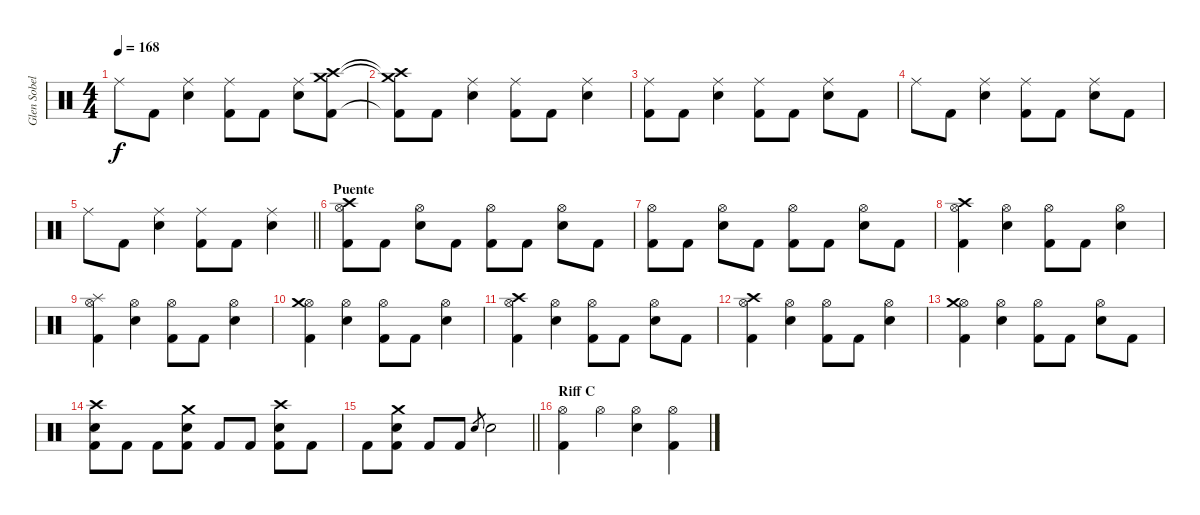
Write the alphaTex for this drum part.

\track ("Glen Sobel" "Glen Sobel") {instrument percussion}
\staff {score}
\articulation defaults
\ts (4 4)
\tempo 168
\clef neutral
\ks c "Ride (middle)".8{dy f} "Kick (hit) 2".8
("Ride (middle)" "Snare (hit) 2").4 ("Ride (middle)" "Kick (hit) 2").8 "Kick (hit) 2".8 ("Ride (middle)" "Snare (hit) 2").8 ("Crash medium (hit)" "Crash high (hit)" "Kick (hit) 2").8 |
("Crash medium (hit)"{t} "Crash high (hit)"{t} "Kick (hit) 2"{t}).8 "Kick (hit) 2".8 ("Ride (middle)" "Snare (hit) 2").4 ("Ride (middle)" "Kick (hit) 2").8 "Kick (hit) 2".8 ("Ride (middle)" "Snare (hit) 2").4 |
("Ride (middle)" "Kick (hit) 2").8 "Kick (hit) 2".8 ("Ride (middle)" "Snare (hit) 2").4 ("Ride (middle)" "Kick (hit) 2").8 "Kick (hit) 2".8 ("Ride (middle)" "Snare (hit) 2").8 "Kick (hit) 2".8 |
"Ride (middle)".8 "Kick (hit) 2".8 ("Ride (middle)" "Snare (hit) 2").4 ("Ride (middle)" "Kick (hit) 2").8 "Kick (hit) 2".8 ("Ride (middle)" "Snare (hit) 2").8 "Kick (hit) 2".8 |
\barLineRight lightlight "Ride (middle)".8 "Kick (hit) 2".8
("Ride (middle)" "Snare (hit) 2").4 ("Ride (middle)" "Kick (hit) 2").8 "Kick (hit) 2".8 ("Ride (middle)" "Snare (hit) 2").4 |
\section ("" "Puente")
("Hi-Hat (open)" "Crash high (hit)" "Kick (hit) 2").8 "Kick (hit) 2".8 ("Hi-Hat (open)" "Snare (hit) 2").8 "Kick (hit) 2".8 ("Hi-Hat (open)" "Kick (hit) 2").8 "Kick (hit) 2".8 ("Hi-Hat (open)" "Snare (hit) 2").8 "Kick (hit) 2".8 |
("Hi-Hat (open)" "Kick (hit) 2").8 "Kick (hit) 2".8 ("Hi-Hat (open)" "Snare (hit) 2").8 "Kick (hit) 2".8 ("Hi-Hat (open)" "Kick (hit) 2").8 "Kick (hit) 2".8 ("Hi-Hat (open)" "Snare (hit) 2").8 "Kick (hit) 2".8 |
("Hi-Hat (open)" "Crash high (hit)" "Kick (hit) 2").4 ("Hi-Hat (open)" "Snare (hit) 2").4 ("Hi-Hat (open)" "Kick (hit) 2").8 "Kick (hit) 2".8 ("Hi-Hat (open)" "Snare (hit) 2").4 |
("Hi-Hat (open)" "Splash (hit)" "Kick (hit) 2").4 ("Hi-Hat (open)" "Snare (hit) 2").4 ("Hi-Hat (open)" "Kick (hit) 2").8 "Kick (hit) 2".8 ("Hi-Hat (open)" "Snare (hit) 2").4 |
("Hi-Hat (open)" "Crash medium (hit)" "Kick (hit) 2").4 ("Hi-Hat (open)" "Snare (hit) 2").4 ("Hi-Hat (open)" "Kick (hit) 2").8 "Kick (hit) 2".8 ("Hi-Hat (open)" "Snare (hit) 2").4 |
("Hi-Hat (open)" "Crash high (hit)" "Kick (hit) 2").4 ("Hi-Hat (open)" "Snare (hit) 2").4 ("Hi-Hat (open)" "Kick (hit) 2").8 "Kick (hit) 2".8 ("Hi-Hat (open)" "Snare (hit) 2").8 "Kick (hit) 2".8 |
("Hi-Hat (open)" "Crash high (hit)" "Kick (hit) 2").4 ("Hi-Hat (open)" "Snare (hit) 2").4 ("Hi-Hat (open)" "Kick (hit) 2").8 "Kick (hit) 2".8 ("Hi-Hat (open)" "Snare (hit) 2").4 |
("Hi-Hat (open)" "Crash medium (hit)" "Kick (hit) 2").4 ("Hi-Hat (open)" "Snare (hit) 2").4 ("Hi-Hat (open)" "Kick (hit) 2").8 "Kick (hit) 2".8 ("Hi-Hat (open)" "Snare (hit) 2").8 "Kick (hit) 2".8 |
("Snare (hit) 2" "Crash high (hit)" "Kick (hit) 2").8 "Kick (hit) 2".8 "Kick (hit) 2".8 ("Snare (hit) 2" "Crash medium (hit)" "Kick (hit) 2").8 "Kick (hit) 2".8 "Kick (hit) 2".8 ("Snare (hit) 2" "Crash high (hit)" "Kick (hit) 2").8 "Kick (hit) 2".8 |
\barLineRight lightlight "Kick (hit) 2".8
("Snare (hit) 2" "Crash medium (hit)" "Kick (hit) 2").8 "Kick (hit) 2".8 "Kick (hit) 2".8 "Snare (hit) 2".8{gr} "Snare (hit) 2".2 |
\section ("" "Riff C")
("Hi-Hat (open)" "Kick (hit) 2").4 "Hi-Hat (open)".4 ("Hi-Hat (open)" "Snare (hit) 2").4 ("Hi-Hat (open)" "Kick (hit) 2").4
